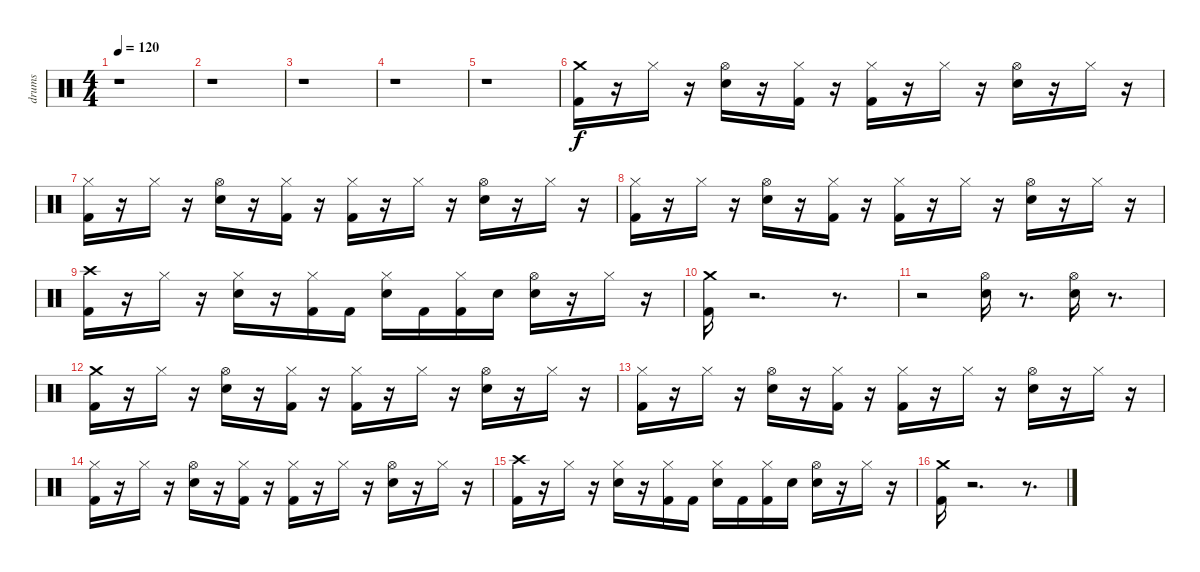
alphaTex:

\track ("drums" "drums") {instrument percussion}
\staff {score}
\articulation defaults
\ts (4 4)
\tempo 120
\clef neutral
\ks c
r.1{dy f} |
r.1 |
r.1 |
r.1 |
r.1 |
("Crash medium (hit)" "Kick (hit) 2").16 r.16 "Hi-Hat (closed)".16 r.16 ("Hi-Hat (open)" "Electric Snare (hit)").16 r.16 ("Hi-Hat (closed)" "Kick (hit) 2").16 r.16 ("Hi-Hat (closed)" "Kick (hit) 2").16 r.16 "Hi-Hat (closed)".16 r.16 ("Hi-Hat (open)" "Snare (hit) 2").16 r.16 "Hi-Hat (closed)".16 r.16 |
("Hi-Hat (closed)" "Kick (hit) 2").16 r.16 "Hi-Hat (closed)".16 r.16 ("Hi-Hat (open)" "Snare (hit) 2").16 r.16 ("Hi-Hat (closed)" "Kick (hit) 2").16 r.16 ("Hi-Hat (closed)" "Kick (hit) 2").16 r.16 "Hi-Hat (closed)".16 r.16 ("Hi-Hat (open)" "Snare (hit) 2").16 r.16 "Hi-Hat (closed)".16 r.16 |
("Hi-Hat (closed)" "Kick (hit) 2").16 r.16 "Hi-Hat (closed)".16 r.16 ("Hi-Hat (open)" "Snare (hit) 2").16 r.16 ("Hi-Hat (closed)" "Kick (hit) 2").16 r.16 ("Hi-Hat (closed)" "Kick (hit) 2").16 r.16 "Hi-Hat (closed)".16 r.16 ("Hi-Hat (open)" "Snare (hit) 2").16 r.16 "Hi-Hat (closed)".16 r.16 |
("Crash high (hit)" "Kick (hit) 2").16 r.16 "Hi-Hat (closed)".16 r.16 ("Hi-Hat (closed)" "Snare (hit) 2").16 r.16 ("Hi-Hat (closed)" "Kick (hit) 2").16 "Kick (hit) 2".16 ("Hi-Hat (closed)" "Electric Snare (hit)").16 "Kick (hit) 2".16 ("Hi-Hat (closed)" "Kick (hit) 2").16 "Electric Snare (hit)".16 ("Hi-Hat (open)" "Electric Snare (hit)").16 r.16 "Hi-Hat (closed)".16 r.16 |
("Crash medium (hit)" "Kick (hit) 2").16 r.2{d} r.8{d} |
r.2 ("Hi-Hat (open)" "Electric Snare (hit)").16 r.8{d} ("Hi-Hat (open)" "Electric Snare (hit)").16 r.8{d} |
("Crash medium (hit)" "Kick (hit) 2").16 r.16 "Hi-Hat (closed)".16 r.16 ("Hi-Hat (open)" "Electric Snare (hit)").16 r.16 ("Hi-Hat (closed)" "Kick (hit) 2").16 r.16 ("Hi-Hat (closed)" "Kick (hit) 2").16 r.16 "Hi-Hat (closed)".16 r.16 ("Hi-Hat (open)" "Snare (hit) 2").16 r.16 "Hi-Hat (closed)".16 r.16 |
("Hi-Hat (closed)" "Kick (hit) 2").16 r.16 "Hi-Hat (closed)".16 r.16 ("Hi-Hat (open)" "Snare (hit) 2").16 r.16 ("Hi-Hat (closed)" "Kick (hit) 2").16 r.16 ("Hi-Hat (closed)" "Kick (hit) 2").16 r.16 "Hi-Hat (closed)".16 r.16 ("Hi-Hat (open)" "Snare (hit) 2").16 r.16 "Hi-Hat (closed)".16 r.16 |
("Hi-Hat (closed)" "Kick (hit) 2").16 r.16 "Hi-Hat (closed)".16 r.16 ("Hi-Hat (open)" "Snare (hit) 2").16 r.16 ("Hi-Hat (closed)" "Kick (hit) 2").16 r.16 ("Hi-Hat (closed)" "Kick (hit) 2").16 r.16 "Hi-Hat (closed)".16 r.16 ("Hi-Hat (open)" "Snare (hit) 2").16 r.16 "Hi-Hat (closed)".16 r.16 |
("Crash high (hit)" "Kick (hit) 2").16 r.16 "Hi-Hat (closed)".16 r.16 ("Hi-Hat (closed)" "Snare (hit) 2").16 r.16 ("Hi-Hat (closed)" "Kick (hit) 2").16 "Kick (hit) 2".16 ("Hi-Hat (closed)" "Electric Snare (hit)").16 "Kick (hit) 2".16 ("Hi-Hat (closed)" "Kick (hit) 2").16 "Electric Snare (hit)".16 ("Hi-Hat (open)" "Electric Snare (hit)").16 r.16 "Hi-Hat (closed)".16 r.16 |
("Crash medium (hit)" "Kick (hit) 2").16 r.2{d} r.8{d}
